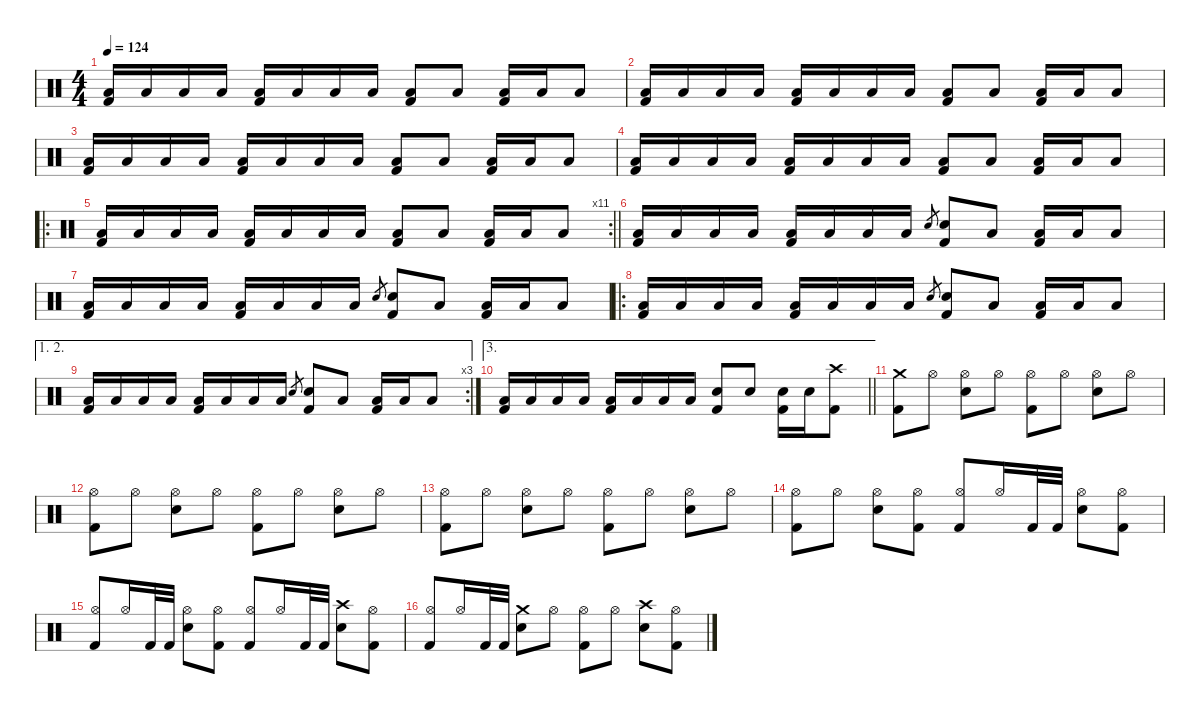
\defaultSystemsLayout 4
\hideDynamics
\bracketExtendMode nobrackets
\singleTrackTrackNamePolicy hidden
\multiTrackTrackNamePolicy hidden
\otherSystemsTrackNameOrientation horizontal
\track ("Drums" "drm.") {defaultSystemsLayout 4 instrument percussion}
\staff {score}
\articulation defaults
\ts (4 4)
\beaming (8 2 2 2 2)
\tempo 124
\clef neutral
\ks c
("Low Floor Tom (hit)" "Kick (hit) 2").16{dy mf beam Up} "Low Floor Tom (hit)".16{dy mp beam Up} "Low Floor Tom (hit)".16{dy mf beam Up} "Low Floor Tom (hit)".16{dy mp beam Up} ("Low Floor Tom (hit)" "Kick (hit) 2").16{dy mf beam Up} "Low Floor Tom (hit)".16{dy mp beam Up} "Low Floor Tom (hit)".16{dy mf beam Up} "Low Floor Tom (hit)".16{dy p beam Up} ("Low Floor Tom (hit)" "Kick (hit) 2").8{dy mf beam Up} "Low Floor Tom (hit)".8{beam Up} ("Low Floor Tom (hit)" "Kick (hit) 2").16{beam Up} "Low Floor Tom (hit)".16{dy mp beam Up} "Low Floor Tom (hit)".8{dy mf beam Up} |
("Low Floor Tom (hit)" "Kick (hit) 2").16{beam Up} "Low Floor Tom (hit)".16{dy mp beam Up} "Low Floor Tom (hit)".16{dy mf beam Up} "Low Floor Tom (hit)".16{dy mp beam Up} ("Low Floor Tom (hit)" "Kick (hit) 2").16{dy mf beam Up} "Low Floor Tom (hit)".16{dy mp beam Up} "Low Floor Tom (hit)".16{dy mf beam Up} "Low Floor Tom (hit)".16{dy p beam Up} ("Low Floor Tom (hit)" "Kick (hit) 2").8{dy mf beam Up} "Low Floor Tom (hit)".8{beam Up} ("Low Floor Tom (hit)" "Kick (hit) 2").16{beam Up} "Low Floor Tom (hit)".16{dy mp beam Up} "Low Floor Tom (hit)".8{dy mf beam Up} |
("Low Floor Tom (hit)" "Kick (hit) 2").16{beam Up} "Low Floor Tom (hit)".16{dy mp beam Up} "Low Floor Tom (hit)".16{dy mf beam Up} "Low Floor Tom (hit)".16{dy mp beam Up} ("Low Floor Tom (hit)" "Kick (hit) 2").16{dy mf beam Up} "Low Floor Tom (hit)".16{dy mp beam Up} "Low Floor Tom (hit)".16{dy mf beam Up} "Low Floor Tom (hit)".16{dy p beam Up} ("Low Floor Tom (hit)" "Kick (hit) 2").8{dy mf beam Up} "Low Floor Tom (hit)".8{beam Up} ("Low Floor Tom (hit)" "Kick (hit) 2").16{beam Up} "Low Floor Tom (hit)".16{dy mp beam Up} "Low Floor Tom (hit)".8{dy mf beam Up} |
("Low Floor Tom (hit)" "Kick (hit) 2").16{beam Up} "Low Floor Tom (hit)".16{dy mp beam Up} "Low Floor Tom (hit)".16{dy mf beam Up} "Low Floor Tom (hit)".16{dy mp beam Up} ("Low Floor Tom (hit)" "Kick (hit) 2").16{dy mf beam Up} "Low Floor Tom (hit)".16{dy mp beam Up} "Low Floor Tom (hit)".16{dy mf beam Up} "Low Floor Tom (hit)".16{dy p beam Up} ("Low Floor Tom (hit)" "Kick (hit) 2").8{dy mf beam Up} "Low Floor Tom (hit)".8{beam Up} ("Low Floor Tom (hit)" "Kick (hit) 2").16{beam Up} "Low Floor Tom (hit)".16{dy mp beam Up} "Low Floor Tom (hit)".8{dy mf beam Up} |
\ro
\rc 11
\barLineRight lightlight
("Low Floor Tom (hit)" "Kick (hit) 2").16{beam Up} "Low Floor Tom (hit)".16{dy mp beam Up} "Low Floor Tom (hit)".16{dy mf beam Up} "Low Floor Tom (hit)".16{dy mp beam Up} ("Low Floor Tom (hit)" "Kick (hit) 2").16{dy mf beam Up} "Low Floor Tom (hit)".16{dy mp beam Up} "Low Floor Tom (hit)".16{dy mf beam Up} "Low Floor Tom (hit)".16{dy p beam Up} ("Low Floor Tom (hit)" "Kick (hit) 2").8{dy mf beam Up} "Low Floor Tom (hit)".8{beam Up} ("Low Floor Tom (hit)" "Kick (hit) 2").16{beam Up} "Low Floor Tom (hit)".16{dy mp beam Up} "Low Floor Tom (hit)".8{dy mf beam Up} |
("Low Floor Tom (hit)" "Kick (hit) 2").16{beam Up} "Low Floor Tom (hit)".16{dy mp beam Up} "Low Floor Tom (hit)".16{dy mf beam Up} "Low Floor Tom (hit)".16{dy mp beam Up} ("Low Floor Tom (hit)" "Kick (hit) 2").16{dy mf beam Up} "Low Floor Tom (hit)".16{dy mp beam Up} "Low Floor Tom (hit)".16{dy mf beam Up} "Low Floor Tom (hit)".16{dy p beam Up} "Electric Snare (hit)".8{gr beam Up} ("Snare (hit) 2" "Kick (hit) 2").8{dy f beam Up} "Low Floor Tom (hit)".8{dy mf beam Up} ("Low Floor Tom (hit)" "Kick (hit) 2").16{beam Up} "Low Floor Tom (hit)".16{dy mp beam Up} "Low Floor Tom (hit)".8{dy mf beam Up} |
("Low Floor Tom (hit)" "Kick (hit) 2").16{beam Up} "Low Floor Tom (hit)".16{dy mp beam Up} "Low Floor Tom (hit)".16{dy mf beam Up} "Low Floor Tom (hit)".16{dy mp beam Up} ("Low Floor Tom (hit)" "Kick (hit) 2").16{dy mf beam Up} "Low Floor Tom (hit)".16{dy mp beam Up} "Low Floor Tom (hit)".16{dy mf beam Up} "Low Floor Tom (hit)".16{dy p beam Up} "Electric Snare (hit)".8{gr dy mp beam Up} ("Snare (hit) 2" "Kick (hit) 2").8{dy f beam Up} "Low Floor Tom (hit)".8{dy mf beam Up} ("Low Floor Tom (hit)" "Kick (hit) 2").16{beam Up} "Low Floor Tom (hit)".16{dy mp beam Up} "Low Floor Tom (hit)".8{dy mf beam Up} |
\ro
("Low Floor Tom (hit)" "Kick (hit) 2").16{beam Up} "Low Floor Tom (hit)".16{dy mp beam Up} "Low Floor Tom (hit)".16{dy mf beam Up} "Low Floor Tom (hit)".16{dy mp beam Up} ("Low Floor Tom (hit)" "Kick (hit) 2").16{dy mf beam Up} "Low Floor Tom (hit)".16{dy mp beam Up} "Low Floor Tom (hit)".16{dy mf beam Up} "Low Floor Tom (hit)".16{dy p beam Up} "Electric Snare (hit)".8{gr dy mp beam Up} ("Snare (hit) 2" "Kick (hit) 2").8{dy ff beam Up} "Low Floor Tom (hit)".8{dy mf beam Up} ("Low Floor Tom (hit)" "Kick (hit) 2").16{beam Up} "Low Floor Tom (hit)".16{dy mp beam Up} "Low Floor Tom (hit)".8{dy mf beam Up} |
\ae (1 2)
\rc 3
("Low Floor Tom (hit)" "Kick (hit) 2").16{beam Up} "Low Floor Tom (hit)".16{dy mp beam Up} "Low Floor Tom (hit)".16{dy mf beam Up} "Low Floor Tom (hit)".16{dy mp beam Up} ("Low Floor Tom (hit)" "Kick (hit) 2").16{dy mf beam Up} "Low Floor Tom (hit)".16{dy mp beam Up} "Low Floor Tom (hit)".16{dy mf beam Up} "Low Floor Tom (hit)".16{dy p beam Up} "Electric Snare (hit)".8{gr dy mp beam Up} ("Snare (hit) 2" "Kick (hit) 2").8{dy ff beam Up} "Low Floor Tom (hit)".8{dy mf beam Up} ("Low Floor Tom (hit)" "Kick (hit) 2").16{beam Up} "Low Floor Tom (hit)".16{dy mp beam Up} "Low Floor Tom (hit)".8{dy mf beam Up} |
\ae 3
\barLineRight lightlight
("Low Floor Tom (hit)" "Kick (hit) 2").16{beam Up} "Low Floor Tom (hit)".16{dy mp beam Up} "Low Floor Tom (hit)".16{dy mf beam Up} "Low Floor Tom (hit)".16{dy mp beam Up} ("Low Floor Tom (hit)" "Kick (hit) 2").16{dy mf beam Up} "Low Floor Tom (hit)".16{dy mp beam Up} "Low Floor Tom (hit)".16{dy mf beam Up} "Low Floor Tom (hit)".16{dy p beam Up} ("Snare (hit) 2" "Kick (hit) 2").8{dy ff beam Up} "Snare (hit) 2".8{beam Up} ("Snare (hit) 2" "Kick (hit) 2").16{beam Down} "Snare (hit) 2".16{beam Down} ("Crash high (hit)" "Kick (hit) 2").8{dy mp beam Down} |
("Crash medium (hit)" "Kick (hit) 2").8{dy mf beam Down} "Hi-Hat (open)".8{beam Down} ("Hi-Hat (open)" "Snare (hit) 2").8{beam Down} "Hi-Hat (open)".8{beam Down} ("Hi-Hat (open)" "Kick (hit) 2").8{beam Down} "Hi-Hat (open)".8{beam Down} ("Hi-Hat (open)" "Snare (hit) 2").8{beam Down} "Hi-Hat (open)".8{beam Down} |
("Hi-Hat (open)" "Kick (hit) 2").8{beam Down} "Hi-Hat (open)".8{beam Down} ("Hi-Hat (open)" "Snare (hit) 2").8{beam Down} "Hi-Hat (open)".8{beam Down} ("Hi-Hat (open)" "Kick (hit) 2").8{beam Down} "Hi-Hat (open)".8{beam Down} ("Hi-Hat (open)" "Snare (hit) 2").8{beam Down} "Hi-Hat (open)".8{beam Down} |
("Hi-Hat (open)" "Kick (hit) 2").8{beam Down} "Hi-Hat (open)".8{beam Down} ("Hi-Hat (open)" "Snare (hit) 2").8{beam Down} "Hi-Hat (open)".8{beam Down} ("Hi-Hat (open)" "Kick (hit) 2").8{beam Down} "Hi-Hat (open)".8{beam Down} ("Hi-Hat (open)" "Snare (hit) 2").8{beam Down} "Hi-Hat (open)".8{beam Down} |
("Hi-Hat (open)" "Kick (hit) 2").8{beam Down} "Hi-Hat (open)".8{beam Down} ("Hi-Hat (open)" "Snare (hit) 2").8{beam Down} ("Hi-Hat (open)" "Kick (hit) 2").8{beam Down} ("Hi-Hat (open)" "Kick (hit) 2").8{beam Up} "Hi-Hat (open)".16{beam Up} "Kick (hit) 2".32{dy ff beam Up} "Kick (hit) 2".32{beam Up} ("Hi-Hat (open)" "Snare (hit) 2").8{dy mf beam Down} ("Hi-Hat (open)" "Kick (hit) 2").8{beam Down} |
("Hi-Hat (open)" "Kick (hit) 2").8{beam Up} "Hi-Hat (open)".16{beam Up} "Kick (hit) 2".32{dy ff beam Up} "Kick (hit) 2".32{beam Up} ("Hi-Hat (open)" "Snare (hit) 2").8{dy mf beam Down} ("Hi-Hat (open)" "Kick (hit) 2").8{beam Down} ("Hi-Hat (open)" "Kick (hit) 2").8{beam Up} "Hi-Hat (open)".16{beam Up} "Kick (hit) 2".32{dy ff beam Up} "Kick (hit) 2".32{beam Up} ("Crash high (hit)" "Snare (hit) 2").8{dy mf beam Down} ("Hi-Hat (open)" "Kick (hit) 2").8{beam Down} |
("Hi-Hat (open)" "Kick (hit) 2").8{beam Up} "Hi-Hat (open)".16{beam Up} "Kick (hit) 2".32{dy ff beam Up} "Kick (hit) 2".32{beam Up} ("Crash medium (hit)" "Snare (hit) 2").8{dy mf beam Down} "Hi-Hat (open)".8{beam Down} ("Hi-Hat (open)" "Kick (hit) 2").8{beam Down} "Hi-Hat (open)".8{beam Down} ("Crash high (hit)" "Snare (hit) 2").8{beam Down} ("Hi-Hat (open)" "Kick (hit) 2").8{beam Down}
